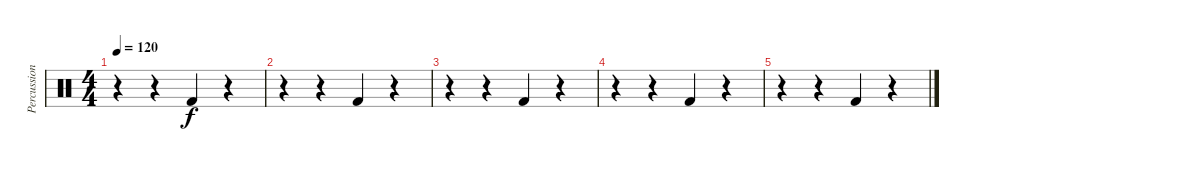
\track ("Percussion II" "Percussion") {instrument percussion}
\staff {score}
\articulation defaults
\ts (4 4)
\tempo 120
\clef neutral
\ks aminor
r.4{dy f} r.4 "Kick (hit) 2".4 r.4 |
r.4 r.4 "Kick (hit) 2".4 r.4 |
r.4 r.4 "Kick (hit) 2".4 r.4 |
r.4 r.4 "Kick (hit) 2".4 r.4 |
r.4 r.4 "Kick (hit) 2".4 r.4
